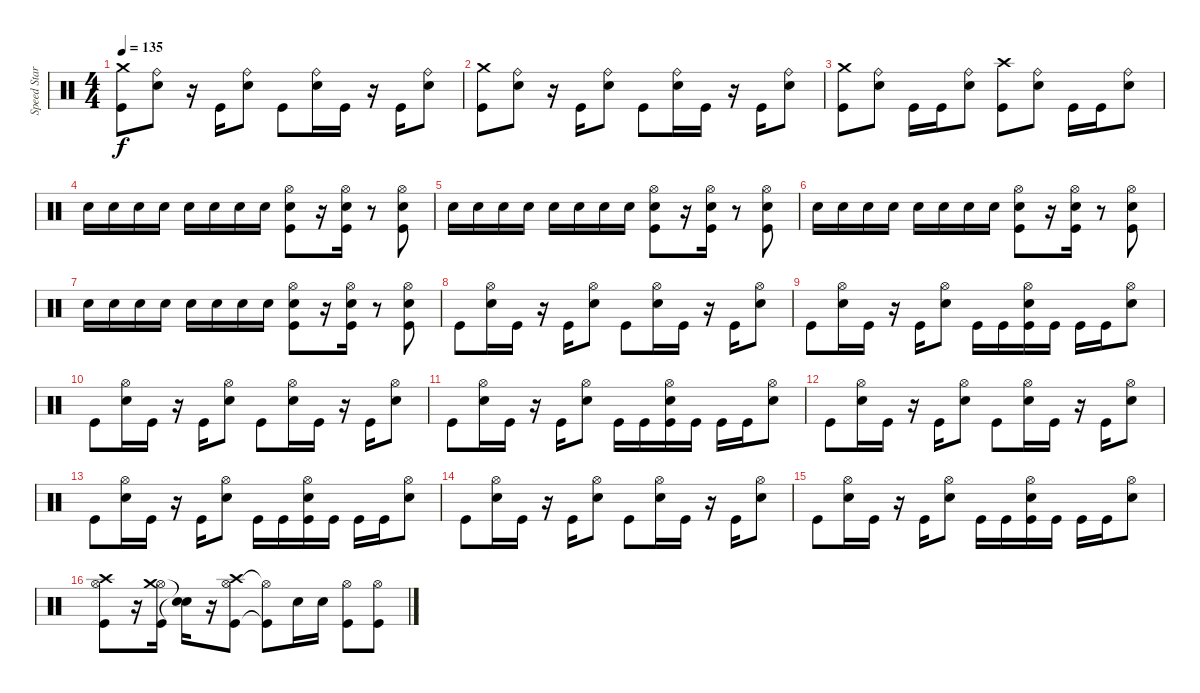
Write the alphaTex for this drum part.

\track ("Speed Star" "Speed Star") {instrument percussion}
\staff {score}
\articulation defaults
\ts (4 4)
\tempo 135
\clef neutral
\ks c
("Kick (hit)" "Crash medium (hit)").8{dy f} ("Snare (hit) 2" "Ride (bell)").8 r.16 "Kick (hit)".16 ("Snare (hit) 2" "Ride (bell)").8 "Kick (hit)".8 ("Snare (hit) 2" "Ride (bell)").16 "Kick (hit)".16 r.16 "Kick (hit)".16 ("Snare (hit) 2" "Ride (bell)").8 |
("Kick (hit)" "Crash medium (hit)").8 ("Snare (hit) 2" "Ride (bell)").8 r.16 "Kick (hit)".16 ("Snare (hit) 2" "Ride (bell)").8 "Kick (hit)".8 ("Snare (hit) 2" "Ride (bell)").16 "Kick (hit)".16 r.16 "Kick (hit)".16 ("Snare (hit) 2" "Ride (bell)").8 |
("Kick (hit)" "Crash medium (hit)").8 ("Snare (hit) 2" "Ride (bell)").8 "Kick (hit)".16 "Kick (hit)".16 ("Snare (hit) 2" "Ride (bell)").8 ("Kick (hit)" "Crash high (hit)").8 ("Snare (hit) 2" "Ride (bell)").8 "Kick (hit)".16 "Kick (hit)".16 ("Snare (hit) 2" "Ride (bell)").8 |
"Snare (hit) 2".16 "Snare (hit) 2".16 "Snare (hit) 2".16 "Snare (hit) 2".16 "Snare (hit) 2".16 "Snare (hit) 2".16 "Snare (hit) 2".16 "Snare (hit) 2".16 ("Kick (hit)" "Snare (hit) 2" "Hi-Hat (open)").8 r.16 ("Kick (hit)" "Snare (hit) 2" "Hi-Hat (open)").16 r.8 ("Kick (hit)" "Snare (hit) 2" "Hi-Hat (open)").8 |
"Snare (hit) 2".16 "Snare (hit) 2".16 "Snare (hit) 2".16 "Snare (hit) 2".16 "Snare (hit) 2".16 "Snare (hit) 2".16 "Snare (hit) 2".16 "Snare (hit) 2".16 ("Kick (hit)" "Snare (hit) 2" "Hi-Hat (open)").8 r.16 ("Kick (hit)" "Snare (hit) 2" "Hi-Hat (open)").16 r.8 ("Kick (hit)" "Snare (hit) 2" "Hi-Hat (open)").8 |
"Snare (hit) 2".16 "Snare (hit) 2".16 "Snare (hit) 2".16 "Snare (hit) 2".16 "Snare (hit) 2".16 "Snare (hit) 2".16 "Snare (hit) 2".16 "Snare (hit) 2".16 ("Kick (hit)" "Snare (hit) 2" "Hi-Hat (open)").8 r.16 ("Kick (hit)" "Snare (hit) 2" "Hi-Hat (open)").16 r.8 ("Kick (hit)" "Snare (hit) 2" "Hi-Hat (open)").8 |
"Snare (hit) 2".16 "Snare (hit) 2".16 "Snare (hit) 2".16 "Snare (hit) 2".16 "Snare (hit) 2".16 "Snare (hit) 2".16 "Snare (hit) 2".16 "Snare (hit) 2".16 ("Kick (hit)" "Snare (hit) 2" "Hi-Hat (open)").8 r.16 ("Kick (hit)" "Snare (hit) 2" "Hi-Hat (open)").16 r.8 ("Kick (hit)" "Snare (hit) 2" "Hi-Hat (open)").8 |
"Kick (hit)".8 ("Snare (hit) 2" "Hi-Hat (open)").16 "Kick (hit)".16 r.16 "Kick (hit)".16 ("Snare (hit) 2" "Hi-Hat (open)").8 "Kick (hit)".8 ("Snare (hit) 2" "Hi-Hat (open)").16 "Kick (hit)".16 r.16 "Kick (hit)".16 ("Snare (hit) 2" "Hi-Hat (open)").8 |
"Kick (hit)".8 ("Snare (hit) 2" "Hi-Hat (open)").16 "Kick (hit)".16 r.16 "Kick (hit)".16 ("Snare (hit) 2" "Hi-Hat (open)").8 "Kick (hit)".16 "Kick (hit)".16 ("Kick (hit)" "Snare (hit) 2" "Hi-Hat (open)").16 "Kick (hit)".16 "Kick (hit)".16 "Kick (hit)".16 ("Snare (hit) 2" "Hi-Hat (open)").8 |
"Kick (hit)".8 ("Snare (hit) 2" "Hi-Hat (open)").16 "Kick (hit)".16 r.16 "Kick (hit)".16 ("Snare (hit) 2" "Hi-Hat (open)").8 "Kick (hit)".8 ("Snare (hit) 2" "Hi-Hat (open)").16 "Kick (hit)".16 r.16 "Kick (hit)".16 ("Snare (hit) 2" "Hi-Hat (open)").8 |
"Kick (hit)".8 ("Snare (hit) 2" "Hi-Hat (open)").16 "Kick (hit)".16 r.16 "Kick (hit)".16 ("Snare (hit) 2" "Hi-Hat (open)").8 "Kick (hit)".16 "Kick (hit)".16 ("Kick (hit)" "Snare (hit) 2" "Hi-Hat (open)").16 "Kick (hit)".16 "Kick (hit)".16 "Kick (hit)".16 ("Snare (hit) 2" "Hi-Hat (open)").8 |
"Kick (hit)".8 ("Snare (hit) 2" "Hi-Hat (open)").16 "Kick (hit)".16 r.16 "Kick (hit)".16 ("Snare (hit) 2" "Hi-Hat (open)").8 "Kick (hit)".8 ("Snare (hit) 2" "Hi-Hat (open)").16 "Kick (hit)".16 r.16 "Kick (hit)".16 ("Snare (hit) 2" "Hi-Hat (open)").8 |
"Kick (hit)".8 ("Snare (hit) 2" "Hi-Hat (open)").16 "Kick (hit)".16 r.16 "Kick (hit)".16 ("Snare (hit) 2" "Hi-Hat (open)").8 "Kick (hit)".16 "Kick (hit)".16 ("Kick (hit)" "Snare (hit) 2" "Hi-Hat (open)").16 "Kick (hit)".16 "Kick (hit)".16 "Kick (hit)".16 ("Snare (hit) 2" "Hi-Hat (open)").8 |
"Kick (hit)".8 ("Snare (hit) 2" "Hi-Hat (open)").16 "Kick (hit)".16 r.16 "Kick (hit)".16 ("Snare (hit) 2" "Hi-Hat (open)").8 "Kick (hit)".8 ("Snare (hit) 2" "Hi-Hat (open)").16 "Kick (hit)".16 r.16 "Kick (hit)".16 ("Snare (hit) 2" "Hi-Hat (open)").8 |
"Kick (hit)".8 ("Snare (hit) 2" "Hi-Hat (open)").16 "Kick (hit)".16 r.16 "Kick (hit)".16 ("Snare (hit) 2" "Hi-Hat (open)").8 "Kick (hit)".16 "Kick (hit)".16 ("Kick (hit)" "Snare (hit) 2" "Hi-Hat (open)").16 "Kick (hit)".16 "Kick (hit)".16 "Kick (hit)".16 ("Snare (hit) 2" "Hi-Hat (open)").8 |
("Kick (hit)" "Hi-Hat (open)" "Crash high (hit)").8 r.16 ("Kick (hit)" "Hi-Hat (open)" "Crash medium (hit)").16 ("Snare (hit)"{t} "Snare (hit)"{t}).16 r.16 ("Kick (hit)" "Hi-Hat (open)" "Crash high (hit)").8 ("Kick (hit)"{t} "Hi-Hat (open)"{t}).8 "Snare (hit) 2".16 "Snare (hit) 2".16 ("Kick (hit)" "Hi-Hat (open)").8 ("Kick (hit)" "Hi-Hat (open)").8
